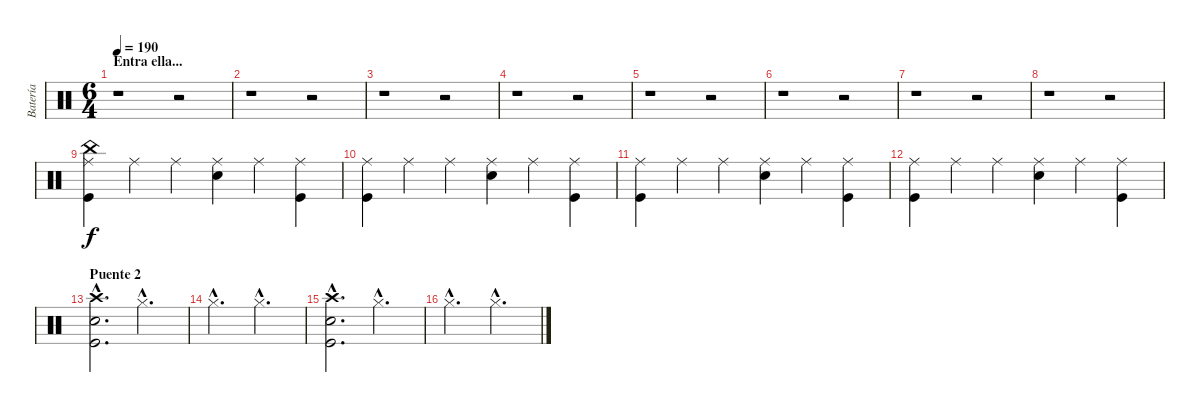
\track ("Batería" "Batería") {instrument percussion}
\staff {score}
\articulation defaults
\ts (6 4)
\section ("" "Entra ella...")
\tempo 190
\clef neutral
\ks c
r.1{dy f} r.2 |
r.1 r.2 |
r.1 r.2 |
r.1 r.2 |
r.1 r.2 |
r.1 r.2 |
r.1 r.2 |
r.1 r.2 |
("Ride (middle)" "Kick (hit)" "China (hit)").4 "Ride (middle)".4 "Ride (middle)".4 ("Ride (middle)" "Snare (hit) 2").4 "Ride (middle)".4 ("Ride (middle)" "Kick (hit)").4 |
("Ride (middle)" "Kick (hit)").4 "Ride (middle)".4 "Ride (middle)".4 ("Ride (middle)" "Snare (hit) 2").4 "Ride (middle)".4 ("Ride (middle)" "Kick (hit)").4 |
("Ride (middle)" "Kick (hit)").4 "Ride (middle)".4 "Ride (middle)".4 ("Ride (middle)" "Snare (hit) 2").4 "Ride (middle)".4 ("Ride (middle)" "Kick (hit)").4 |
("Ride (middle)" "Kick (hit)").4 "Ride (middle)".4 "Ride (middle)".4 ("Ride (middle)" "Snare (hit) 2").4 "Ride (middle)".4 ("Ride (middle)" "Kick (hit)").4 |
\section ("" "Puente 2")
("Crash high (hit)"{hac} "Kick (hit)"{hac} "Snare (hit) 2"{hac}).2{d} "Hi-Hat (closed)"{hac}.2{d} |
"Hi-Hat (closed)"{hac}.2{d} "Hi-Hat (closed)"{hac}.2{d} |
("Crash high (hit)"{hac} "Kick (hit)"{hac} "Snare (hit) 2"{hac}).2{d} "Hi-Hat (closed)"{hac}.2{d} |
"Hi-Hat (closed)"{hac}.2{d} "Hi-Hat (closed)"{hac}.2{d}
